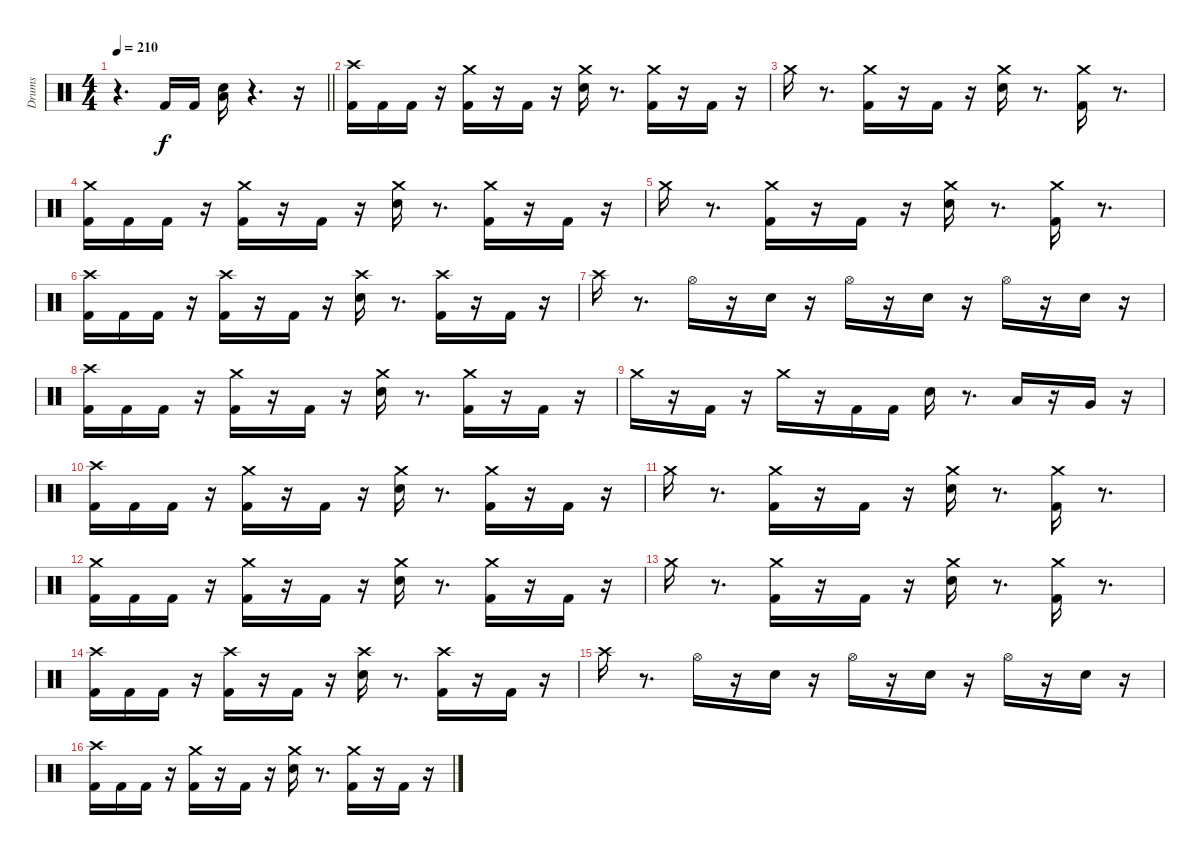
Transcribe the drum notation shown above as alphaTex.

\track ("Drums" "Drums") {instrument percussion}
\staff {score}
\articulation defaults
\ts (4 4)
\tempo 210
\clef neutral
\barLineRight lightlight
\ks c
r.4{d dy f} "Kick (hit) 2".16 "Kick (hit) 2".16 ("Snare (hit) 2" "Low Floor Tom (hit)").16 r.4{d} r.16 |
\section ("" " ")
("Kick (hit) 2" "Crash high (hit)").16 "Kick (hit) 2".16 "Kick (hit) 2".16 r.16 ("Kick (hit) 2" "Crash medium (hit)").16 r.16 "Kick (hit) 2".16 r.16 ("Snare (hit) 2" "Crash medium (hit)").16 r.8{d} ("Kick (hit) 2" "Crash medium (hit)").16 r.16 "Kick (hit) 2".16 r.16 |
"Crash medium (hit)".16 r.8{d} ("Kick (hit) 2" "Crash medium (hit)").16 r.16 "Kick (hit) 2".16 r.16 ("Snare (hit) 2" "Crash medium (hit)").16 r.8{d} ("Kick (hit) 2" "Crash medium (hit)").16 r.8{d} |
("Kick (hit) 2" "Crash medium (hit)").16 "Kick (hit) 2".16 "Kick (hit) 2".16 r.16 ("Kick (hit) 2" "Crash medium (hit)").16 r.16 "Kick (hit) 2".16 r.16 ("Snare (hit) 2" "Crash medium (hit)").16 r.8{d} ("Kick (hit) 2" "Crash medium (hit)").16 r.16 "Kick (hit) 2".16 r.16 |
"Crash medium (hit)".16 r.8{d} ("Kick (hit) 2" "Crash medium (hit)").16 r.16 "Kick (hit) 2".16 r.16 ("Snare (hit) 2" "Crash medium (hit)").16 r.8{d} ("Kick (hit) 2" "Crash medium (hit)").16 r.8{d} |
("Kick (hit) 2" "Crash high (hit)").16 "Kick (hit) 2".16 "Kick (hit) 2".16 r.16 ("Kick (hit) 2" "Crash high (hit)").16 r.16 "Kick (hit) 2".16 r.16 ("Snare (hit) 2" "Crash high (hit)").16 r.8{d} ("Kick (hit) 2" "Crash high (hit)").16 r.16 "Kick (hit) 2".16 r.16 |
"Crash high (hit)".16 r.8{d} "Hi-Hat (open)".16 r.16 "Snare (hit) 2".16 r.16 "Hi-Hat (open)".16 r.16 "Snare (hit) 2".16 r.16 "Hi-Hat (open)".16 r.16 "Snare (hit) 2".16 r.16 |
("Kick (hit) 2" "Crash high (hit)").16 "Kick (hit) 2".16 "Kick (hit) 2".16 r.16 ("Kick (hit) 2" "Crash medium (hit)").16 r.16 "Kick (hit) 2".16 r.16 ("Snare (hit) 2" "Crash medium (hit)").16 r.8{d} ("Kick (hit) 2" "Crash medium (hit)").16 r.16 "Kick (hit) 2".16 r.16 |
"Crash medium (hit)".16 r.16 "Kick (hit) 2".16 r.16 "Crash medium (hit)".16 r.16 "Kick (hit) 2".16 "Kick (hit) 2".16 "Snare (hit) 2".16 r.8{d} "Low Tom (hit)".16 r.16 "Very Low Tom (hit)".16 r.16 |
("Kick (hit) 2" "Crash high (hit)").16 "Kick (hit) 2".16 "Kick (hit) 2".16 r.16 ("Kick (hit) 2" "Crash medium (hit)").16 r.16 "Kick (hit) 2".16 r.16 ("Snare (hit) 2" "Crash medium (hit)").16 r.8{d} ("Kick (hit) 2" "Crash medium (hit)").16 r.16 "Kick (hit) 2".16 r.16 |
"Crash medium (hit)".16 r.8{d} ("Kick (hit) 2" "Crash medium (hit)").16 r.16 "Kick (hit) 2".16 r.16 ("Snare (hit) 2" "Crash medium (hit)").16 r.8{d} ("Kick (hit) 2" "Crash medium (hit)").16 r.8{d} |
("Kick (hit) 2" "Crash medium (hit)").16 "Kick (hit) 2".16 "Kick (hit) 2".16 r.16 ("Kick (hit) 2" "Crash medium (hit)").16 r.16 "Kick (hit) 2".16 r.16 ("Snare (hit) 2" "Crash medium (hit)").16 r.8{d} ("Kick (hit) 2" "Crash medium (hit)").16 r.16 "Kick (hit) 2".16 r.16 |
"Crash medium (hit)".16 r.8{d} ("Kick (hit) 2" "Crash medium (hit)").16 r.16 "Kick (hit) 2".16 r.16 ("Snare (hit) 2" "Crash medium (hit)").16 r.8{d} ("Kick (hit) 2" "Crash medium (hit)").16 r.8{d} |
("Kick (hit) 2" "Crash high (hit)").16 "Kick (hit) 2".16 "Kick (hit) 2".16 r.16 ("Kick (hit) 2" "Crash high (hit)").16 r.16 "Kick (hit) 2".16 r.16 ("Snare (hit) 2" "Crash high (hit)").16 r.8{d} ("Kick (hit) 2" "Crash high (hit)").16 r.16 "Kick (hit) 2".16 r.16 |
"Crash high (hit)".16 r.8{d} "Hi-Hat (open)".16 r.16 "Snare (hit) 2".16 r.16 "Hi-Hat (open)".16 r.16 "Snare (hit) 2".16 r.16 "Hi-Hat (open)".16 r.16 "Snare (hit) 2".16 r.16 |
("Kick (hit) 2" "Crash high (hit)").16 "Kick (hit) 2".16 "Kick (hit) 2".16 r.16 ("Kick (hit) 2" "Crash medium (hit)").16 r.16 "Kick (hit) 2".16 r.16 ("Snare (hit) 2" "Crash medium (hit)").16 r.8{d} ("Kick (hit) 2" "Crash medium (hit)").16 r.16 "Kick (hit) 2".16 r.16
